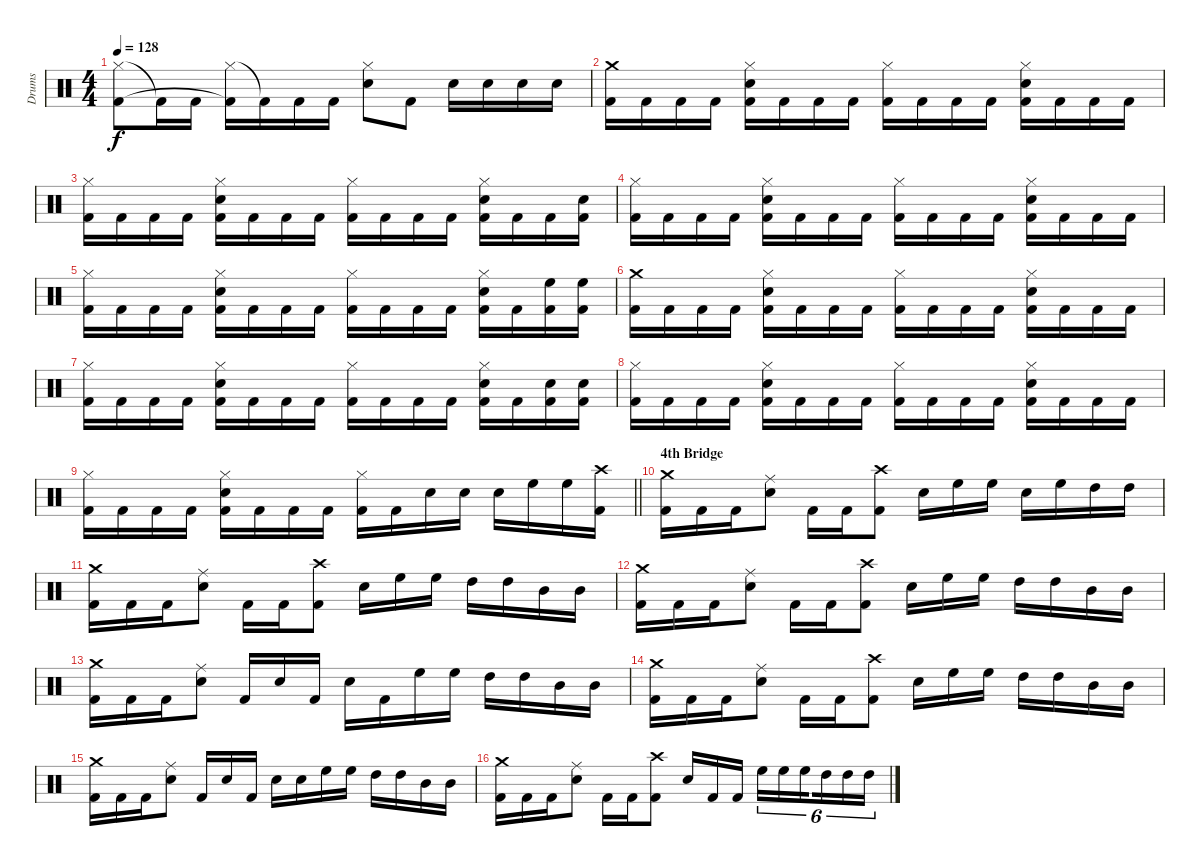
\track ("Drums" "Drums") {instrument percussion}
\staff {score}
\articulation defaults
\ts (4 4)
\tempo 128
\clef neutral
\ks c
("Hi-Hat (closed)" "Kick (hit) 2").8{dy f} "Kick (hit) 2"{t}.16 "Kick (hit) 2".16 ("Hi-Hat (closed)" "Kick (hit) 2"{t}).16 "Kick (hit) 2"{t}.16 "Kick (hit) 2".16 "Kick (hit) 2".16 ("Hi-Hat (closed)" "Snare (hit) 2").8 "Kick (hit) 2".8 "Snare (hit) 2".16 "Snare (hit) 2".16 "Snare (hit) 2".16 "Snare (hit) 2".16 |
("Crash medium (hit)" "Kick (hit) 2").16 "Kick (hit) 2".16 "Kick (hit) 2".16 "Kick (hit) 2".16 ("Hi-Hat (closed)" "Snare (hit) 2" "Kick (hit) 2").16 "Kick (hit) 2".16 "Kick (hit) 2".16 "Kick (hit) 2".16 ("Hi-Hat (closed)" "Kick (hit) 2").16 "Kick (hit) 2".16 "Kick (hit) 2".16 "Kick (hit) 2".16 ("Hi-Hat (closed)" "Snare (hit) 2" "Kick (hit) 2").16 "Kick (hit) 2".16 "Kick (hit) 2".16 "Kick (hit) 2".16 |
("Hi-Hat (closed)" "Kick (hit) 2").16 "Kick (hit) 2".16 "Kick (hit) 2".16 "Kick (hit) 2".16 ("Hi-Hat (closed)" "Snare (hit) 2" "Kick (hit) 2").16 "Kick (hit) 2".16 "Kick (hit) 2".16 "Kick (hit) 2".16 ("Hi-Hat (closed)" "Kick (hit) 2").16 "Kick (hit) 2".16 "Kick (hit) 2".16 "Kick (hit) 2".16 ("Hi-Hat (closed)" "Snare (hit) 2" "Kick (hit) 2").16 "Kick (hit) 2".16 "Kick (hit) 2".16 ("Snare (hit) 2" "Kick (hit) 2").16 |
("Hi-Hat (closed)" "Kick (hit) 2").16 "Kick (hit) 2".16 "Kick (hit) 2".16 "Kick (hit) 2".16 ("Hi-Hat (closed)" "Snare (hit) 2" "Kick (hit) 2").16 "Kick (hit) 2".16 "Kick (hit) 2".16 "Kick (hit) 2".16 ("Hi-Hat (closed)" "Kick (hit) 2").16 "Kick (hit) 2".16 "Kick (hit) 2".16 "Kick (hit) 2".16 ("Hi-Hat (closed)" "Snare (hit) 2" "Kick (hit) 2").16 "Kick (hit) 2".16 "Kick (hit) 2".16 "Kick (hit) 2".16 |
("Hi-Hat (closed)" "Kick (hit) 2").16 "Kick (hit) 2".16 "Kick (hit) 2".16 "Kick (hit) 2".16 ("Hi-Hat (closed)" "Snare (hit) 2" "Kick (hit) 2").16 "Kick (hit) 2".16 "Kick (hit) 2".16 "Kick (hit) 2".16 ("Hi-Hat (closed)" "Kick (hit) 2").16 "Kick (hit) 2".16 "Kick (hit) 2".16 "Kick (hit) 2".16 ("Hi-Hat (closed)" "Snare (hit) 2" "Kick (hit) 2").16 "Kick (hit) 2".16 ("High Floor Tom (hit)" "Kick (hit) 2").16 ("High Floor Tom (hit)" "Kick (hit) 2").16 |
("Crash medium (hit)" "Kick (hit) 2").16 "Kick (hit) 2".16 "Kick (hit) 2".16 "Kick (hit) 2".16 ("Hi-Hat (closed)" "Snare (hit) 2" "Kick (hit) 2").16 "Kick (hit) 2".16 "Kick (hit) 2".16 "Kick (hit) 2".16 ("Hi-Hat (closed)" "Kick (hit) 2").16 "Kick (hit) 2".16 "Kick (hit) 2".16 "Kick (hit) 2".16 ("Hi-Hat (closed)" "Snare (hit) 2" "Kick (hit) 2").16 "Kick (hit) 2".16 "Kick (hit) 2".16 "Kick (hit) 2".16 |
("Hi-Hat (closed)" "Kick (hit) 2").16 "Kick (hit) 2".16 "Kick (hit) 2".16 "Kick (hit) 2".16 ("Hi-Hat (closed)" "Snare (hit) 2" "Kick (hit) 2").16 "Kick (hit) 2".16 "Kick (hit) 2".16 "Kick (hit) 2".16 ("Hi-Hat (closed)" "Kick (hit) 2").16 "Kick (hit) 2".16 "Kick (hit) 2".16 "Kick (hit) 2".16 ("Hi-Hat (closed)" "Snare (hit) 2" "Kick (hit) 2").16 "Kick (hit) 2".16 ("Snare (hit) 2" "Kick (hit) 2").16 ("Snare (hit) 2" "Kick (hit) 2").16 |
("Hi-Hat (closed)" "Kick (hit) 2").16 "Kick (hit) 2".16 "Kick (hit) 2".16 "Kick (hit) 2".16 ("Hi-Hat (closed)" "Snare (hit) 2" "Kick (hit) 2").16 "Kick (hit) 2".16 "Kick (hit) 2".16 "Kick (hit) 2".16 ("Hi-Hat (closed)" "Kick (hit) 2").16 "Kick (hit) 2".16 "Kick (hit) 2".16 "Kick (hit) 2".16 ("Hi-Hat (closed)" "Snare (hit) 2" "Kick (hit) 2").16 "Kick (hit) 2".16 "Kick (hit) 2".16 "Kick (hit) 2".16 |
\barLineRight lightlight
("Hi-Hat (closed)" "Kick (hit) 2").16 "Kick (hit) 2".16 "Kick (hit) 2".16 "Kick (hit) 2".16 ("Hi-Hat (closed)" "Snare (hit) 2" "Kick (hit) 2").16 "Kick (hit) 2".16 "Kick (hit) 2".16 "Kick (hit) 2".16 ("Hi-Hat (closed)" "Kick (hit) 2").16 "Kick (hit) 2".16 "Snare (hit) 2".16 "Snare (hit) 2".16 "Snare (hit) 2".16 "High Floor Tom (hit)".16 "High Floor Tom (hit)".16 ("Crash high (hit)" "Kick (hit) 2").16 |
\section ("" "4th Bridge")
("Crash medium (hit)" "Kick (hit) 2").16 "Kick (hit) 2".16 "Kick (hit) 2".16 ("Ride (middle)" "Snare (hit) 2").8 "Kick (hit) 2".16 "Kick (hit) 2".16 ("Crash high (hit)" "Kick (hit) 2").8 "Snare (hit) 2".16 "High Floor Tom (hit)".16 "High Floor Tom (hit)".16 "Snare (hit) 2".16 "High Floor Tom (hit)".16 "High Tom (hit)".16 "High Tom (hit)".16 |
("Crash medium (hit)" "Kick (hit) 2").16 "Kick (hit) 2".16 "Kick (hit) 2".16 ("Ride (middle)" "Snare (hit) 2").8 "Kick (hit) 2".16 "Kick (hit) 2".16 ("Crash high (hit)" "Kick (hit) 2").8 "Snare (hit) 2".16 "High Floor Tom (hit)".16 "High Floor Tom (hit)".16 "High Tom (hit)".16 "High Tom (hit)".16 "Mid Tom (hit)".16 "Mid Tom (hit)".16 |
("Crash medium (hit)" "Kick (hit) 2").16 "Kick (hit) 2".16 "Kick (hit) 2".16 ("Ride (middle)" "Snare (hit) 2").8 "Kick (hit) 2".16 "Kick (hit) 2".16 ("Crash high (hit)" "Kick (hit) 2").8 "Snare (hit) 2".16 "High Floor Tom (hit)".16 "High Floor Tom (hit)".16 "High Tom (hit)".16 "High Tom (hit)".16 "Mid Tom (hit)".16 "Mid Tom (hit)".16 |
("Crash medium (hit)" "Kick (hit) 2").16 "Kick (hit) 2".16 "Kick (hit) 2".16 ("Ride (middle)" "Snare (hit) 2").8 "Kick (hit) 2".16 "Snare (hit) 2".16 "Kick (hit) 2".16 "Snare (hit) 2".16 "Kick (hit) 2".16 "High Floor Tom (hit)".16 "High Floor Tom (hit)".16 "High Tom (hit)".16 "High Tom (hit)".16 "Mid Tom (hit)".16 "Mid Tom (hit)".16 |
("Crash medium (hit)" "Kick (hit) 2").16 "Kick (hit) 2".16 "Kick (hit) 2".16 ("Ride (middle)" "Snare (hit) 2").8 "Kick (hit) 2".16 "Kick (hit) 2".16 ("Crash high (hit)" "Kick (hit) 2").8 "Snare (hit) 2".16 "High Floor Tom (hit)".16 "High Floor Tom (hit)".16 "High Tom (hit)".16 "High Tom (hit)".16 "Mid Tom (hit)".16 "Mid Tom (hit)".16 |
("Crash medium (hit)" "Kick (hit) 2").16 "Kick (hit) 2".16 "Kick (hit) 2".16 ("Ride (middle)" "Snare (hit) 2").8 "Kick (hit) 2".16 "Snare (hit) 2".16 "Kick (hit) 2".16 "Snare (hit) 2".16 "Snare (hit) 2".16 "High Floor Tom (hit)".16 "High Floor Tom (hit)".16 "High Tom (hit)".16 "High Tom (hit)".16 "Mid Tom (hit)".16 "Mid Tom (hit)".16 |
("Crash medium (hit)" "Kick (hit) 2").16 "Kick (hit) 2".16 "Kick (hit) 2".16 ("Ride (middle)" "Snare (hit) 2").8 "Kick (hit) 2".16 "Kick (hit) 2".16 ("Crash high (hit)" "Kick (hit) 2").8 "Snare (hit) 2".16 "Kick (hit) 2".16 "Kick (hit) 2".16 "High Floor Tom (hit)".16{tu (6 4)} "High Floor Tom (hit)".16{tu (6 4)} "High Floor Tom (hit)".16{tu (6 4) beam splitsecondary} "High Tom (hit)".16{tu (6 4)} "High Tom (hit)".16{tu (6 4)} "High Tom (hit)".16{tu (6 4)}
